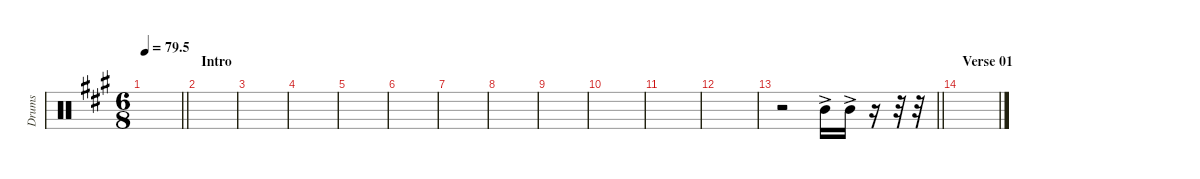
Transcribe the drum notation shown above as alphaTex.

\defaultSystemsLayout 4
\hideDynamics
\bracketExtendMode nobrackets
\otherSystemsTrackNameOrientation horizontal
\track ("Tom 02" "Drums") {instrument percussion}
\staff {score}
\articulation defaults
\ts (6 8)
\tempo
79.5
\accidentals auto
\clef neutral
\ottava regular
\simile none
\scale
0.474178
\barLineRight lightlight
\ks a
|
\section ("" "Intro")
\scale
0.262911 |
\scale
0.262911 |
\scale
0.333333 |
\scale
0.333333 |
\scale
0.333333 |
\scale
0.333333 |
\scale
0.333333 |
\scale
0.333333 |
\scale
0.333333 |
\scale
0.333333 |
\scale
0.333333 |
\scale
0.333333
\barLineRight lightlight
r.2 "Mid Tom (hit)"{ac acc forcenatural}.16 "Mid Tom (hit)"{ac acc forcenatural}.16 r.16 r.32 r.32 |
\section ("" "Verse 01")
\scale
0.333333 |
\scale
0.333333 |
\scale
0.333333
